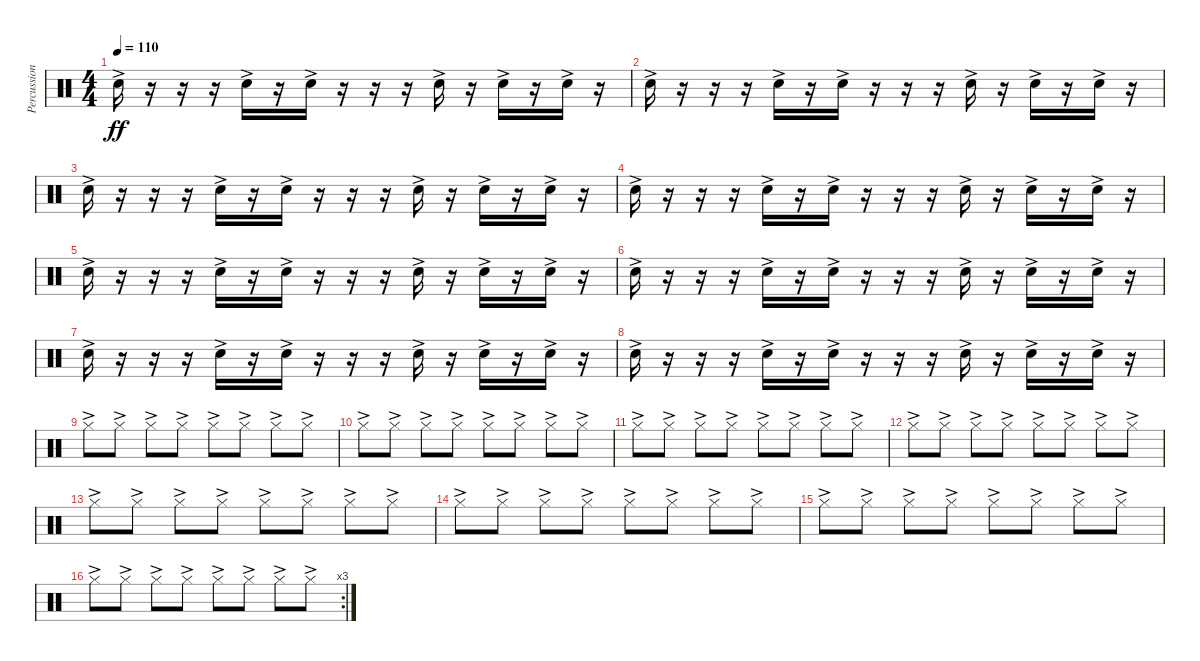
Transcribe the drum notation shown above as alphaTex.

\track ("Percussion" "Percussion") {instrument percussion}
\staff {score}
\articulation defaults
\ts (4 4)
\tempo 110
\clef neutral
\ks c "Snare (hit) 2"{ac}.16{dy ff}
r.16 r.16 r.16 "Snare (hit) 2"{ac}.16 r.16 "Snare (hit) 2"{ac}.16 r.16 r.16 r.16 "Snare (hit) 2"{ac}.16 r.16 "Snare (hit) 2"{ac}.16 r.16 "Snare (hit) 2"{ac}.16 r.16 |
"Snare (hit) 2"{ac}.16 r.16 r.16 r.16 "Snare (hit) 2"{ac}.16 r.16 "Snare (hit) 2"{ac}.16 r.16 r.16 r.16 "Snare (hit) 2"{ac}.16 r.16 "Snare (hit) 2"{ac}.16 r.16 "Snare (hit) 2"{ac}.16 r.16 |
"Snare (hit) 2"{ac}.16 r.16 r.16 r.16 "Snare (hit) 2"{ac}.16 r.16 "Snare (hit) 2"{ac}.16 r.16 r.16 r.16 "Snare (hit) 2"{ac}.16 r.16 "Snare (hit) 2"{ac}.16 r.16 "Snare (hit) 2"{ac}.16 r.16 |
"Snare (hit) 2"{ac}.16 r.16 r.16 r.16 "Snare (hit) 2"{ac}.16 r.16 "Snare (hit) 2"{ac}.16 r.16 r.16 r.16 "Snare (hit) 2"{ac}.16 r.16 "Snare (hit) 2"{ac}.16 r.16 "Snare (hit) 2"{ac}.16 r.16 |
"Snare (hit) 2"{ac}.16 r.16 r.16 r.16 "Snare (hit) 2"{ac}.16 r.16 "Snare (hit) 2"{ac}.16 r.16 r.16 r.16 "Snare (hit) 2"{ac}.16 r.16 "Snare (hit) 2"{ac}.16 r.16 "Snare (hit) 2"{ac}.16 r.16 |
"Snare (hit) 2"{ac}.16 r.16 r.16 r.16 "Snare (hit) 2"{ac}.16 r.16 "Snare (hit) 2"{ac}.16 r.16 r.16 r.16 "Snare (hit) 2"{ac}.16 r.16 "Snare (hit) 2"{ac}.16 r.16 "Snare (hit) 2"{ac}.16 r.16 |
"Snare (hit) 2"{ac}.16 r.16 r.16 r.16 "Snare (hit) 2"{ac}.16 r.16 "Snare (hit) 2"{ac}.16 r.16 r.16 r.16 "Snare (hit) 2"{ac}.16 r.16 "Snare (hit) 2"{ac}.16 r.16 "Snare (hit) 2"{ac}.16 r.16 |
"Snare (hit) 2"{ac}.16 r.16 r.16 r.16 "Snare (hit) 2"{ac}.16 r.16 "Snare (hit) 2"{ac}.16 r.16 r.16 r.16 "Snare (hit) 2"{ac}.16 r.16 "Snare (hit) 2"{ac}.16 r.16 "Snare (hit) 2"{ac}.16 r.16 |
"Hi-Hat (closed)"{ac}.8 "Hi-Hat (closed)"{ac}.8 "Hi-Hat (closed)"{ac}.8 "Hi-Hat (closed)"{ac}.8 "Hi-Hat (closed)"{ac}.8 "Hi-Hat (closed)"{ac}.8 "Hi-Hat (closed)"{ac}.8 "Hi-Hat (closed)"{ac}.8 |
"Hi-Hat (closed)"{ac}.8 "Hi-Hat (closed)"{ac}.8 "Hi-Hat (closed)"{ac}.8 "Hi-Hat (closed)"{ac}.8 "Hi-Hat (closed)"{ac}.8 "Hi-Hat (closed)"{ac}.8 "Hi-Hat (closed)"{ac}.8 "Hi-Hat (closed)"{ac}.8 |
"Hi-Hat (closed)"{ac}.8 "Hi-Hat (closed)"{ac}.8 "Hi-Hat (closed)"{ac}.8 "Hi-Hat (closed)"{ac}.8 "Hi-Hat (closed)"{ac}.8 "Hi-Hat (closed)"{ac}.8 "Hi-Hat (closed)"{ac}.8 "Hi-Hat (closed)"{ac}.8 |
"Hi-Hat (closed)"{ac}.8 "Hi-Hat (closed)"{ac}.8 "Hi-Hat (closed)"{ac}.8 "Hi-Hat (closed)"{ac}.8 "Hi-Hat (closed)"{ac}.8 "Hi-Hat (closed)"{ac}.8 "Hi-Hat (closed)"{ac}.8 "Hi-Hat (closed)"{ac}.8 |
"Hi-Hat (closed)"{ac}.8 "Hi-Hat (closed)"{ac}.8 "Hi-Hat (closed)"{ac}.8 "Hi-Hat (closed)"{ac}.8 "Hi-Hat (closed)"{ac}.8 "Hi-Hat (closed)"{ac}.8 "Hi-Hat (closed)"{ac}.8 "Hi-Hat (closed)"{ac}.8 |
"Hi-Hat (closed)"{ac}.8 "Hi-Hat (closed)"{ac}.8 "Hi-Hat (closed)"{ac}.8 "Hi-Hat (closed)"{ac}.8 "Hi-Hat (closed)"{ac}.8 "Hi-Hat (closed)"{ac}.8 "Hi-Hat (closed)"{ac}.8 "Hi-Hat (closed)"{ac}.8 |
"Hi-Hat (closed)"{ac}.8 "Hi-Hat (closed)"{ac}.8 "Hi-Hat (closed)"{ac}.8 "Hi-Hat (closed)"{ac}.8 "Hi-Hat (closed)"{ac}.8 "Hi-Hat (closed)"{ac}.8 "Hi-Hat (closed)"{ac}.8 "Hi-Hat (closed)"{ac}.8 |
\rc 3 "Hi-Hat (closed)"{ac}.8 "Hi-Hat (closed)"{ac}.8 "Hi-Hat (closed)"{ac}.8 "Hi-Hat (closed)"{ac}.8 "Hi-Hat (closed)"{ac}.8 "Hi-Hat (closed)"{ac}.8 "Hi-Hat (closed)"{ac}.8 "Hi-Hat (closed)"{ac}.8
